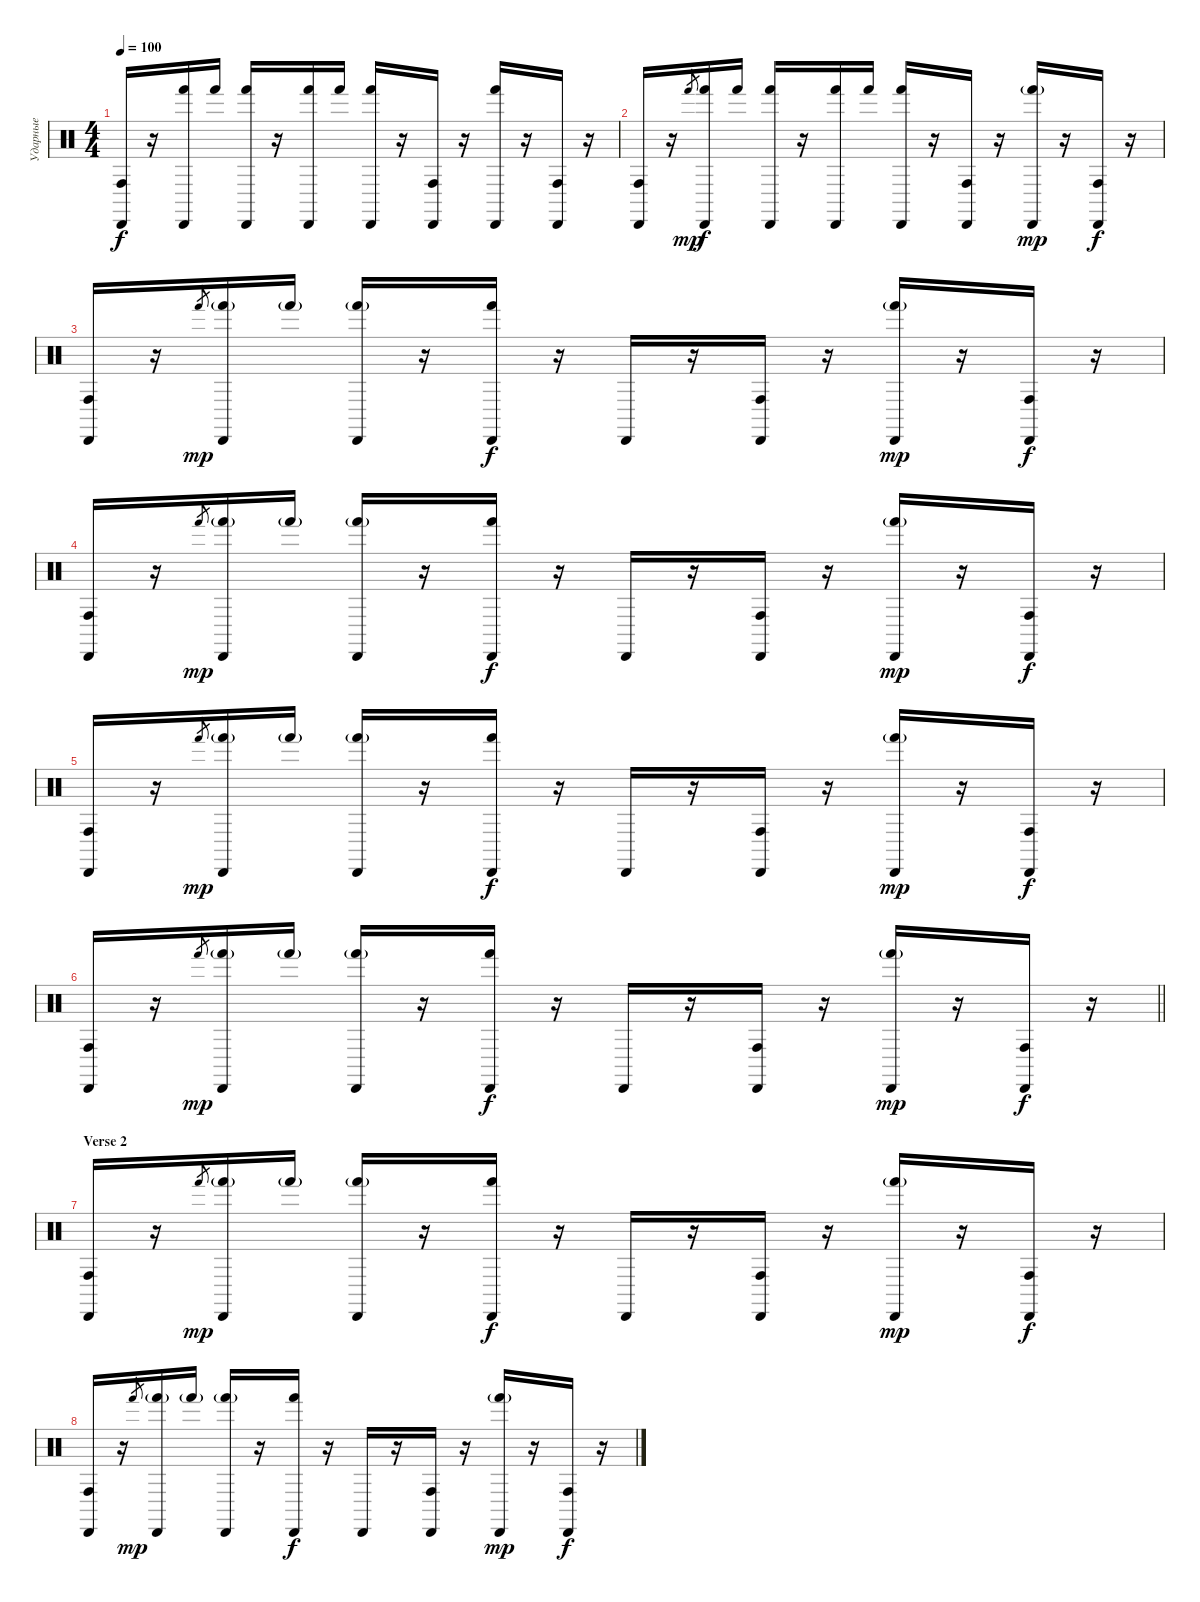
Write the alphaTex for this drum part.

\track ("Ударные" "Ударные") {instrument percussion}
\staff {score}
\articulation defaults
\ts (4 4)
\tempo 100
\clef neutral
\ks c
("Conga high (hit)" "Cabasa (hit)").16{dy f} r.16 ("Hand (hit)" "Cabasa (hit)").16 "Hand (hit)".16 ("Hand (hit)" "Cabasa (hit)").16 r.16 ("Hand (hit)" "Cabasa (hit)").16 "Hand (hit)".16 ("Hand (hit)" "Cabasa (hit)").16 r.16 ("Conga high (hit)" "Cabasa (hit)").16 r.16 ("Hand (hit)" "Cabasa (hit)").16 r.16 ("Conga high (hit)" "Cabasa (hit)").16 r.16 |
("Conga high (hit)" "Cabasa (hit)").16 r.16 "Hand (hit)".8{gr dy mp} ("Hand (hit)" "Cabasa (hit)").16{dy f} "Hand (hit)".16 ("Hand (hit)" "Cabasa (hit)").16 r.16 ("Hand (hit)" "Cabasa (hit)").16 "Hand (hit)".16 ("Hand (hit)" "Cabasa (hit)").16 r.16 ("Conga high (hit)" "Cabasa (hit)").16 r.16 ("Hand (hit)"{g} "Cabasa (hit)").16{dy mp} r.16 ("Conga high (hit)" "Cabasa (hit)").16{dy f} r.16 |
("Conga high (hit)" "Cabasa (hit)").16 r.16 "Hand (hit)".8{gr dy mp} ("Hand (hit)"{g} "Cabasa (hit)").16 "Hand (hit)"{g}.16 ("Hand (hit)"{g} "Cabasa (hit)").16 r.16 ("Hand (hit)" "Cabasa (hit)").16{dy f} r.16 "Cabasa (hit)".16 r.16 ("Conga high (hit)" "Cabasa (hit)").16 r.16 ("Hand (hit)"{g} "Cabasa (hit)").16{dy mp} r.16 ("Conga high (hit)" "Cabasa (hit)").16{dy f} r.16 |
("Conga high (hit)" "Cabasa (hit)").16 r.16 "Hand (hit)".8{gr dy mp} ("Hand (hit)"{g} "Cabasa (hit)").16 "Hand (hit)"{g}.16 ("Hand (hit)"{g} "Cabasa (hit)").16 r.16 ("Hand (hit)" "Cabasa (hit)").16{dy f} r.16 "Cabasa (hit)".16 r.16 ("Conga high (hit)" "Cabasa (hit)").16 r.16 ("Hand (hit)"{g} "Cabasa (hit)").16{dy mp} r.16 ("Conga high (hit)" "Cabasa (hit)").16{dy f} r.16 |
("Conga high (hit)" "Cabasa (hit)").16 r.16 "Hand (hit)".8{gr dy mp} ("Hand (hit)"{g} "Cabasa (hit)").16 "Hand (hit)"{g}.16 ("Hand (hit)"{g} "Cabasa (hit)").16 r.16 ("Hand (hit)" "Cabasa (hit)").16{dy f} r.16 "Cabasa (hit)".16 r.16 ("Conga high (hit)" "Cabasa (hit)").16 r.16 ("Hand (hit)"{g} "Cabasa (hit)").16{dy mp} r.16 ("Conga high (hit)" "Cabasa (hit)").16{dy f} r.16 |
\barLineRight lightlight
("Conga high (hit)" "Cabasa (hit)").16 r.16 "Hand (hit)".8{gr dy mp} ("Hand (hit)"{g} "Cabasa (hit)").16 "Hand (hit)"{g}.16 ("Hand (hit)"{g} "Cabasa (hit)").16 r.16 ("Hand (hit)" "Cabasa (hit)").16{dy f} r.16 "Cabasa (hit)".16 r.16 ("Conga high (hit)" "Cabasa (hit)").16 r.16 ("Hand (hit)"{g} "Cabasa (hit)").16{dy mp} r.16 ("Conga high (hit)" "Cabasa (hit)").16{dy f} r.16 |
\section ("" "Verse 2")
("Conga high (hit)" "Cabasa (hit)").16 r.16 "Hand (hit)".8{gr dy mp} ("Hand (hit)"{g} "Cabasa (hit)").16 "Hand (hit)"{g}.16 ("Hand (hit)"{g} "Cabasa (hit)").16 r.16 ("Hand (hit)" "Cabasa (hit)").16{dy f} r.16 "Cabasa (hit)".16 r.16 ("Conga high (hit)" "Cabasa (hit)").16 r.16 ("Hand (hit)"{g} "Cabasa (hit)").16{dy mp} r.16 ("Conga high (hit)" "Cabasa (hit)").16{dy f} r.16 |
("Conga high (hit)" "Cabasa (hit)").16 r.16 "Hand (hit)".8{gr dy mp} ("Hand (hit)"{g} "Cabasa (hit)").16 "Hand (hit)"{g}.16 ("Hand (hit)"{g} "Cabasa (hit)").16 r.16 ("Hand (hit)" "Cabasa (hit)").16{dy f} r.16 "Cabasa (hit)".16 r.16 ("Conga high (hit)" "Cabasa (hit)").16 r.16 ("Hand (hit)"{g} "Cabasa (hit)").16{dy mp} r.16 ("Conga high (hit)" "Cabasa (hit)").16{dy f} r.16
